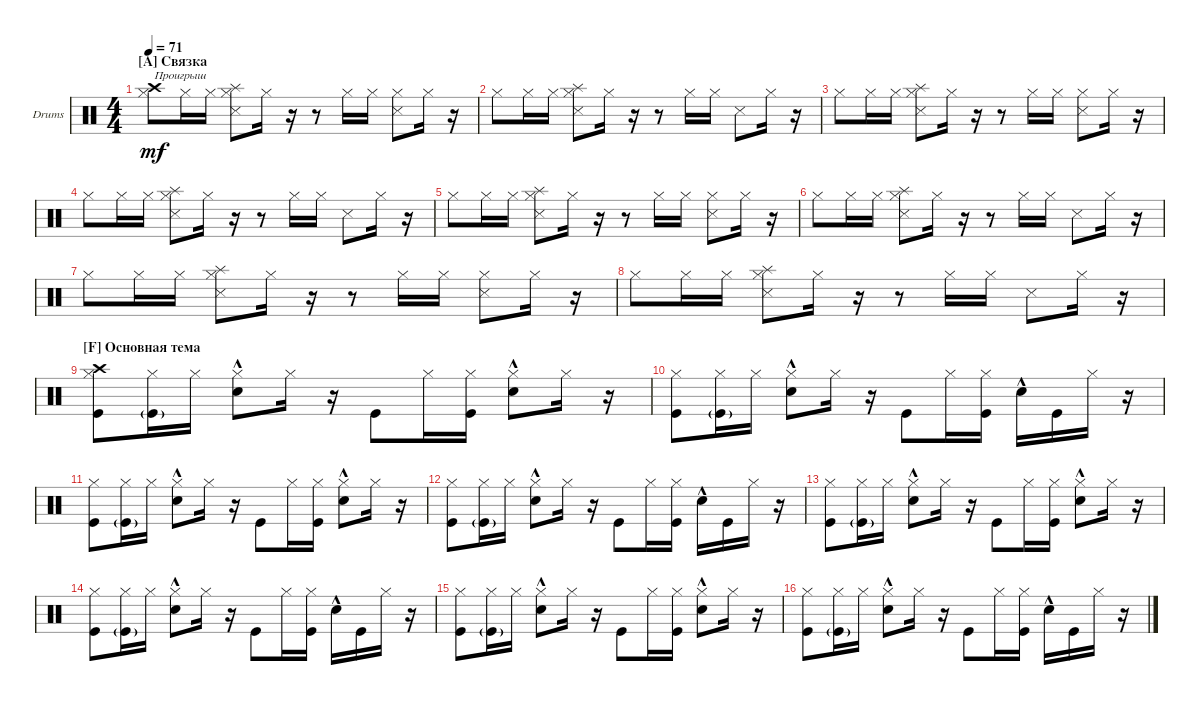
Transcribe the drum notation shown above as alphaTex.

\defaultSystemsLayout 4
\bracketExtendMode groupsimilarinstruments
\firstSystemTrackNameOrientation horizontal
\otherSystemsTrackNameOrientation horizontal
\track ("Drumkit" "Drums") {instrument percussion}
\staff {score}
\articulation defaults
\ts (4 4)
\section ("A" "Связка")
\tempo 71
\clef neutral
\ks c
("Hi-Hat (closed)" "Crash high (hit)").8{txt "Проигрыш" dy mf} "Hi-Hat (closed)".16 "Hi-Hat (closed)".16 ("Hi-Hat (closed)" "Splash (hit)" "Snare (side stick) 3").8 "Hi-Hat (closed)".16 r.16 r.8 "Hi-Hat (closed)".16 "Hi-Hat (closed)".16 ("Hi-Hat (closed)" "Snare (side stick) 3").8 "Hi-Hat (closed)".16 r.16 |
"Hi-Hat (closed)".8 "Hi-Hat (closed)".16 "Hi-Hat (closed)".16 ("Hi-Hat (closed)" "Snare (side stick) 3" "Splash (hit)").8 "Hi-Hat (closed)".16 r.16 r.8 "Hi-Hat (closed)".16 "Hi-Hat (closed)".16 "Snare (side stick) 3".8 "Hi-Hat (closed)".16 r.16 |
"Hi-Hat (closed)".8 "Hi-Hat (closed)".16 "Hi-Hat (closed)".16 ("Hi-Hat (closed)" "Splash (hit)" "Snare (side stick) 3").8 "Hi-Hat (closed)".16 r.16 r.8 "Hi-Hat (closed)".16 "Hi-Hat (closed)".16 ("Hi-Hat (closed)" "Snare (side stick) 3").8 "Hi-Hat (closed)".16 r.16 |
"Hi-Hat (closed)".8 "Hi-Hat (closed)".16 "Hi-Hat (closed)".16 ("Hi-Hat (closed)" "Snare (side stick) 3" "Splash (hit)").8 "Hi-Hat (closed)".16 r.16 r.8 "Hi-Hat (closed)".16 "Hi-Hat (closed)".16 "Snare (side stick) 3".8 "Hi-Hat (closed)".16 r.16 |
"Hi-Hat (closed)".8 "Hi-Hat (closed)".16 "Hi-Hat (closed)".16 ("Hi-Hat (closed)" "Splash (hit)" "Snare (side stick) 3").8 "Hi-Hat (closed)".16 r.16 r.8 "Hi-Hat (closed)".16 "Hi-Hat (closed)".16 ("Hi-Hat (closed)" "Snare (side stick) 3").8 "Hi-Hat (closed)".16 r.16 |
"Hi-Hat (closed)".8 "Hi-Hat (closed)".16 "Hi-Hat (closed)".16 ("Hi-Hat (closed)" "Snare (side stick) 3" "Splash (hit)").8 "Hi-Hat (closed)".16 r.16 r.8 "Hi-Hat (closed)".16 "Hi-Hat (closed)".16 "Snare (side stick) 3".8 "Hi-Hat (closed)".16 r.16 |
"Hi-Hat (closed)".8 "Hi-Hat (closed)".16 "Hi-Hat (closed)".16 ("Hi-Hat (closed)" "Splash (hit)" "Snare (side stick) 3").8 "Hi-Hat (closed)".16 r.16 r.8 "Hi-Hat (closed)".16 "Hi-Hat (closed)".16 ("Hi-Hat (closed)" "Snare (side stick) 3").8 "Hi-Hat (closed)".16 r.16 |
"Hi-Hat (closed)".8 "Hi-Hat (closed)".16 "Hi-Hat (closed)".16 ("Hi-Hat (closed)" "Snare (side stick) 3" "Splash (hit)").8 "Hi-Hat (closed)".16 r.16 r.8 "Hi-Hat (closed)".16 "Hi-Hat (closed)".16 "Snare (side stick) 3".8 "Hi-Hat (closed)".16 r.16 |
\section ("F" "Основная тема")
("Hi-Hat (closed)" "Crash high (hit)" "Kick (hit)").8 ("Hi-Hat (closed)" "Kick (hit)"{g}).16 "Hi-Hat (closed)".16 ("Hi-Hat (closed)" "Snare (hit) 2"{hac}).8 "Hi-Hat (closed)".16 r.16 "Kick (hit)".8 "Hi-Hat (closed)".16 ("Hi-Hat (closed)" "Kick (hit)").16 ("Hi-Hat (closed)" "Snare (hit) 2"{hac}).8 "Hi-Hat (closed)".16 r.16 |
("Hi-Hat (closed)" "Kick (hit)").8 ("Hi-Hat (closed)" "Kick (hit)"{g}).16 "Hi-Hat (closed)".16 ("Hi-Hat (closed)" "Snare (hit) 2"{hac}).8 "Hi-Hat (closed)".16 r.16 "Kick (hit)".8 "Hi-Hat (closed)".16 ("Hi-Hat (closed)" "Kick (hit)").16 "Snare (hit) 2"{hac}.16 "Kick (hit)".16 "Hi-Hat (closed)".16 r.16 |
("Hi-Hat (closed)" "Kick (hit)").8 ("Hi-Hat (closed)" "Kick (hit)"{g}).16 "Hi-Hat (closed)".16 ("Hi-Hat (closed)" "Snare (hit) 2"{hac}).8 "Hi-Hat (closed)".16 r.16 "Kick (hit)".8 "Hi-Hat (closed)".16 ("Hi-Hat (closed)" "Kick (hit)").16 ("Hi-Hat (closed)" "Snare (hit) 2"{hac}).8 "Hi-Hat (closed)".16 r.16 |
("Hi-Hat (closed)" "Kick (hit)").8 ("Hi-Hat (closed)" "Kick (hit)"{g}).16 "Hi-Hat (closed)".16 ("Hi-Hat (closed)" "Snare (hit) 2"{hac}).8 "Hi-Hat (closed)".16 r.16 "Kick (hit)".8 "Hi-Hat (closed)".16 ("Hi-Hat (closed)" "Kick (hit)").16 "Snare (hit) 2"{hac}.16 "Kick (hit)".16 "Hi-Hat (closed)".16 r.16 |
("Hi-Hat (closed)" "Kick (hit)").8 ("Hi-Hat (closed)" "Kick (hit)"{g}).16 "Hi-Hat (closed)".16 ("Hi-Hat (closed)" "Snare (hit) 2"{hac}).8 "Hi-Hat (closed)".16 r.16 "Kick (hit)".8 "Hi-Hat (closed)".16 ("Hi-Hat (closed)" "Kick (hit)").16 ("Hi-Hat (closed)" "Snare (hit) 2"{hac}).8 "Hi-Hat (closed)".16 r.16 |
("Hi-Hat (closed)" "Kick (hit)").8 ("Hi-Hat (closed)" "Kick (hit)"{g}).16 "Hi-Hat (closed)".16 ("Hi-Hat (closed)" "Snare (hit) 2"{hac}).8 "Hi-Hat (closed)".16 r.16 "Kick (hit)".8 "Hi-Hat (closed)".16 ("Hi-Hat (closed)" "Kick (hit)").16 "Snare (hit) 2"{hac}.16 "Kick (hit)".16 "Hi-Hat (closed)".16 r.16 |
("Hi-Hat (closed)" "Kick (hit)").8 ("Hi-Hat (closed)" "Kick (hit)"{g}).16 "Hi-Hat (closed)".16 ("Hi-Hat (closed)" "Snare (hit) 2"{hac}).8 "Hi-Hat (closed)".16 r.16 "Kick (hit)".8 "Hi-Hat (closed)".16 ("Hi-Hat (closed)" "Kick (hit)").16 ("Hi-Hat (closed)" "Snare (hit) 2"{hac}).8 "Hi-Hat (closed)".16 r.16 |
("Hi-Hat (closed)" "Kick (hit)").8 ("Hi-Hat (closed)" "Kick (hit)"{g}).16 "Hi-Hat (closed)".16 ("Hi-Hat (closed)" "Snare (hit) 2"{hac}).8 "Hi-Hat (closed)".16 r.16 "Kick (hit)".8 "Hi-Hat (closed)".16 ("Hi-Hat (closed)" "Kick (hit)").16 "Snare (hit) 2"{hac}.16 "Kick (hit)".16 "Hi-Hat (closed)".16 r.16
